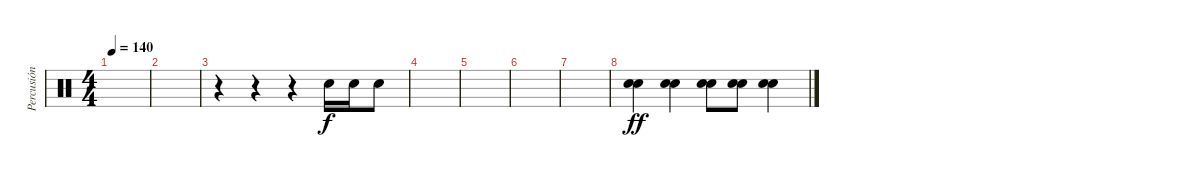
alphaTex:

\track ("Percusión Fredy Caldas" "Percusión ") {instrument percussion}
\staff {score}
\articulation defaults
\ts (4 4)
\tempo 140
\clef neutral
\ks c
|
|
r.4 r.4 r.4 "Snare (hit) 2".16{dy f} "Snare (hit) 2".16 "Snare (hit) 2".8 |
|
|
|
|
("Electric Snare (hit)" "Snare (hit) 2").4{dy ff} ("Electric Snare (hit)" "Snare (hit) 2").4 ("Electric Snare (hit)" "Snare (hit) 2").8 ("Electric Snare (hit)" "Snare (hit) 2").8 ("Electric Snare (hit)" "Snare (hit) 2").4
